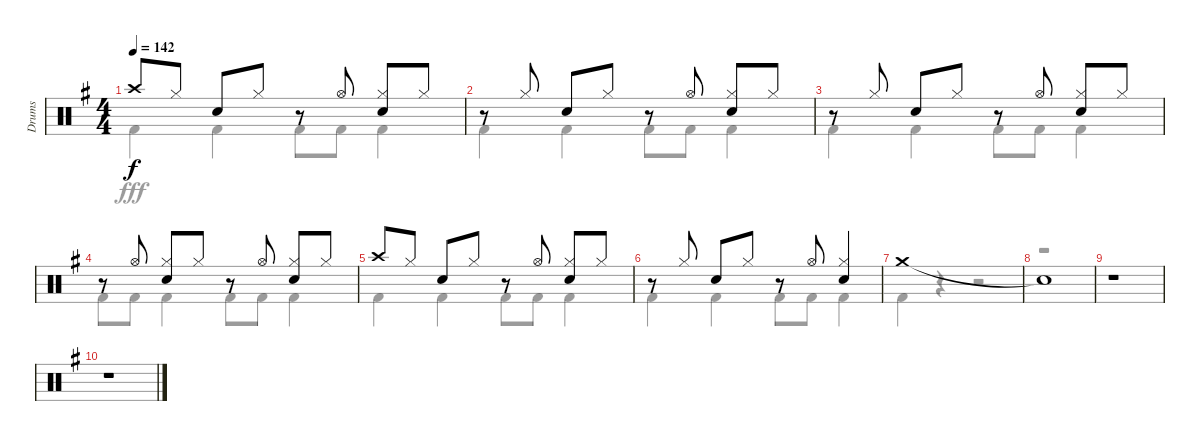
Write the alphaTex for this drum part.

\track ("Drums" "Drums") {instrument percussion}
\staff {score}
\articulation defaults
\voice
\ts (4 4)
\tempo 142
\clef neutral
\ks g "Crash high (hit)".8{dy f} "Hi-Hat (closed)".8 "Snare (hit) 2".8 "Hi-Hat (closed)".8
r.8 "Hi-Hat (open)".8 ("Hi-Hat (closed)" "Snare (hit) 2").8 "Hi-Hat (closed)".8 |
r.8 "Hi-Hat (closed)".8 "Snare (hit) 2".8 "Hi-Hat (closed)".8 r.8 "Hi-Hat (open)".8 ("Hi-Hat (closed)" "Snare (hit) 2").8 "Hi-Hat (closed)".8 |
r.8 "Hi-Hat (closed)".8 "Snare (hit) 2".8 "Hi-Hat (closed)".8 r.8 "Hi-Hat (open)".8 ("Hi-Hat (closed)" "Snare (hit) 2").8 "Hi-Hat (closed)".8 |
r.8 "Hi-Hat (open)".8 ("Hi-Hat (closed)" "Snare (hit) 2").8 "Hi-Hat (closed)".8 r.8 "Hi-Hat (open)".8 ("Hi-Hat (closed)" "Snare (hit) 2").8 "Hi-Hat (closed)".8 |
"Crash high (hit)".8 "Hi-Hat (closed)".8 "Snare (hit) 2".8 "Hi-Hat (closed)".8 r.8 "Hi-Hat (open)".8 ("Hi-Hat (closed)" "Snare (hit) 2").8 "Hi-Hat (closed)".8 |
r.8 "Hi-Hat (closed)".8 "Snare (hit) 2".8 "Hi-Hat (closed)".8 r.8 "Hi-Hat (open)".8 ("Hi-Hat (closed)" "Snare (hit) 2").4 |
"Crash medium (hit)".1 |
"Snare (hit)"{t}.1 |
r.1 |
r.1
\voice
\clef neutral
\ottava regular
\simile none
\ks g "Kick (hit) 2".4{dy fff} "Kick (hit) 2".4 "Kick (hit) 2".8 "Kick (hit) 2".8 "Kick (hit) 2".4
|
"Kick (hit) 2".4 "Kick (hit) 2".4 "Kick (hit) 2".8 "Kick (hit) 2".8 "Kick (hit) 2".4 |
"Kick (hit) 2".4 "Kick (hit) 2".4 "Kick (hit) 2".8 "Kick (hit) 2".8 "Kick (hit) 2".4 |
"Kick (hit) 2".8 "Kick (hit) 2".8 "Kick (hit) 2".4 "Kick (hit) 2".8 "Kick (hit) 2".8 "Kick (hit) 2".4 |
"Kick (hit) 2".4 "Kick (hit) 2".4 "Kick (hit) 2".8 "Kick (hit) 2".8 "Kick (hit) 2".4 |
"Kick (hit) 2".4 "Kick (hit) 2".4 "Kick (hit) 2".8 "Kick (hit) 2".8 "Kick (hit) 2".4 |
"Kick (hit) 2".4 r.4 r.2 |
r.1 |
r.1 |
r.1
